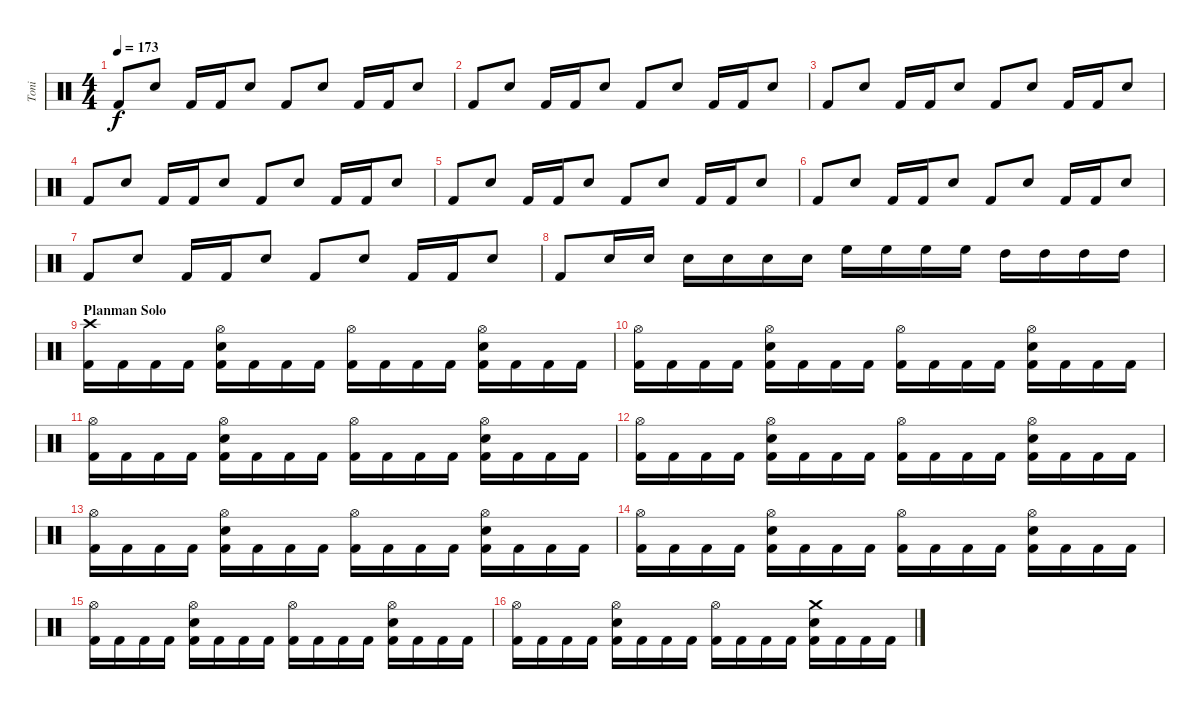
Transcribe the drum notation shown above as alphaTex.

\track ("Toni" "Toni") {instrument percussion}
\staff {score}
\articulation defaults
\ts (4 4)
\tempo 173
\clef neutral
\ks c "Kick (hit) 2".8{dy f} "Electric Snare (hit)".8 "Kick (hit) 2".16 "Kick (hit) 2".16 "Electric Snare (hit)".8 "Kick (hit) 2".8 "Electric Snare (hit)".8 "Kick (hit) 2".16 "Kick (hit) 2".16 "Electric Snare (hit)".8
|
"Kick (hit) 2".8 "Electric Snare (hit)".8 "Kick (hit) 2".16 "Kick (hit) 2".16 "Electric Snare (hit)".8 "Kick (hit) 2".8 "Electric Snare (hit)".8 "Kick (hit) 2".16 "Kick (hit) 2".16 "Electric Snare (hit)".8 |
"Kick (hit) 2".8 "Electric Snare (hit)".8 "Kick (hit) 2".16 "Kick (hit) 2".16 "Electric Snare (hit)".8 "Kick (hit) 2".8 "Electric Snare (hit)".8 "Kick (hit) 2".16 "Kick (hit) 2".16 "Electric Snare (hit)".8 |
"Kick (hit) 2".8 "Electric Snare (hit)".8 "Kick (hit) 2".16 "Kick (hit) 2".16 "Electric Snare (hit)".8 "Kick (hit) 2".8 "Electric Snare (hit)".8 "Kick (hit) 2".16 "Kick (hit) 2".16 "Electric Snare (hit)".8 |
"Kick (hit) 2".8 "Electric Snare (hit)".8 "Kick (hit) 2".16 "Kick (hit) 2".16 "Electric Snare (hit)".8 "Kick (hit) 2".8 "Electric Snare (hit)".8 "Kick (hit) 2".16 "Kick (hit) 2".16 "Electric Snare (hit)".8 |
"Kick (hit) 2".8 "Electric Snare (hit)".8 "Kick (hit) 2".16 "Kick (hit) 2".16 "Electric Snare (hit)".8 "Kick (hit) 2".8 "Electric Snare (hit)".8 "Kick (hit) 2".16 "Kick (hit) 2".16 "Electric Snare (hit)".8 |
"Kick (hit) 2".8 "Electric Snare (hit)".8 "Kick (hit) 2".16 "Kick (hit) 2".16 "Electric Snare (hit)".8 "Kick (hit) 2".8 "Electric Snare (hit)".8 "Kick (hit) 2".16 "Kick (hit) 2".16 "Electric Snare (hit)".8 |
"Kick (hit) 2".8 "Electric Snare (hit)".16 "Electric Snare (hit)".16 "Electric Snare (hit)".16 "Electric Snare (hit)".16 "Electric Snare (hit)".16 "Electric Snare (hit)".16 "High Floor Tom (hit)".16 "High Floor Tom (hit)".16 "High Floor Tom (hit)".16 "High Floor Tom (hit)".16 "High Tom (hit)".16 "High Tom (hit)".16 "High Tom (hit)".16 "High Tom (hit)".16 |
\section ("" "Planman Solo")
("Crash high (hit)" "Kick (hit) 2").16 "Kick (hit) 2".16 "Kick (hit) 2".16 "Kick (hit) 2".16 ("Hi-Hat (open)" "Electric Snare (hit)" "Kick (hit) 2").16 "Kick (hit) 2".16 "Kick (hit) 2".16 "Kick (hit) 2".16 ("Hi-Hat (open)" "Kick (hit) 2").16 "Kick (hit) 2".16 "Kick (hit) 2".16 "Kick (hit) 2".16 ("Hi-Hat (open)" "Electric Snare (hit)" "Kick (hit) 2").16 "Kick (hit) 2".16 "Kick (hit) 2".16 "Kick (hit) 2".16 |
("Hi-Hat (open)" "Kick (hit) 2").16 "Kick (hit) 2".16 "Kick (hit) 2".16 "Kick (hit) 2".16 ("Hi-Hat (open)" "Electric Snare (hit)" "Kick (hit) 2").16 "Kick (hit) 2".16 "Kick (hit) 2".16 "Kick (hit) 2".16 ("Hi-Hat (open)" "Kick (hit) 2").16 "Kick (hit) 2".16 "Kick (hit) 2".16 "Kick (hit) 2".16 ("Hi-Hat (open)" "Electric Snare (hit)" "Kick (hit) 2").16 "Kick (hit) 2".16 "Kick (hit) 2".16 "Kick (hit) 2".16 |
("Hi-Hat (open)" "Kick (hit) 2").16 "Kick (hit) 2".16 "Kick (hit) 2".16 "Kick (hit) 2".16 ("Hi-Hat (open)" "Electric Snare (hit)" "Kick (hit) 2").16 "Kick (hit) 2".16 "Kick (hit) 2".16 "Kick (hit) 2".16 ("Hi-Hat (open)" "Kick (hit) 2").16 "Kick (hit) 2".16 "Kick (hit) 2".16 "Kick (hit) 2".16 ("Hi-Hat (open)" "Electric Snare (hit)" "Kick (hit) 2").16 "Kick (hit) 2".16 "Kick (hit) 2".16 "Kick (hit) 2".16 |
("Hi-Hat (open)" "Kick (hit) 2").16 "Kick (hit) 2".16 "Kick (hit) 2".16 "Kick (hit) 2".16 ("Hi-Hat (open)" "Electric Snare (hit)" "Kick (hit) 2").16 "Kick (hit) 2".16 "Kick (hit) 2".16 "Kick (hit) 2".16 ("Hi-Hat (open)" "Kick (hit) 2").16 "Kick (hit) 2".16 "Kick (hit) 2".16 "Kick (hit) 2".16 ("Hi-Hat (open)" "Electric Snare (hit)" "Kick (hit) 2").16 "Kick (hit) 2".16 "Kick (hit) 2".16 "Kick (hit) 2".16 |
("Hi-Hat (open)" "Kick (hit) 2").16 "Kick (hit) 2".16 "Kick (hit) 2".16 "Kick (hit) 2".16 ("Hi-Hat (open)" "Electric Snare (hit)" "Kick (hit) 2").16 "Kick (hit) 2".16 "Kick (hit) 2".16 "Kick (hit) 2".16 ("Hi-Hat (open)" "Kick (hit) 2").16 "Kick (hit) 2".16 "Kick (hit) 2".16 "Kick (hit) 2".16 ("Hi-Hat (open)" "Electric Snare (hit)" "Kick (hit) 2").16 "Kick (hit) 2".16 "Kick (hit) 2".16 "Kick (hit) 2".16 |
("Hi-Hat (open)" "Kick (hit) 2").16 "Kick (hit) 2".16 "Kick (hit) 2".16 "Kick (hit) 2".16 ("Hi-Hat (open)" "Electric Snare (hit)" "Kick (hit) 2").16 "Kick (hit) 2".16 "Kick (hit) 2".16 "Kick (hit) 2".16 ("Hi-Hat (open)" "Kick (hit) 2").16 "Kick (hit) 2".16 "Kick (hit) 2".16 "Kick (hit) 2".16 ("Hi-Hat (open)" "Electric Snare (hit)" "Kick (hit) 2").16 "Kick (hit) 2".16 "Kick (hit) 2".16 "Kick (hit) 2".16 |
("Hi-Hat (open)" "Kick (hit) 2").16 "Kick (hit) 2".16 "Kick (hit) 2".16 "Kick (hit) 2".16 ("Hi-Hat (open)" "Electric Snare (hit)" "Kick (hit) 2").16 "Kick (hit) 2".16 "Kick (hit) 2".16 "Kick (hit) 2".16 ("Hi-Hat (open)" "Kick (hit) 2").16 "Kick (hit) 2".16 "Kick (hit) 2".16 "Kick (hit) 2".16 ("Hi-Hat (open)" "Electric Snare (hit)" "Kick (hit) 2").16 "Kick (hit) 2".16 "Kick (hit) 2".16 "Kick (hit) 2".16 |
("Hi-Hat (open)" "Kick (hit) 2").16 "Kick (hit) 2".16 "Kick (hit) 2".16 "Kick (hit) 2".16 ("Hi-Hat (open)" "Electric Snare (hit)" "Kick (hit) 2").16 "Kick (hit) 2".16 "Kick (hit) 2".16 "Kick (hit) 2".16 ("Hi-Hat (open)" "Kick (hit) 2").16 "Kick (hit) 2".16 "Kick (hit) 2".16 "Kick (hit) 2".16 ("Crash medium (hit)" "Electric Snare (hit)" "Kick (hit) 2").16 "Kick (hit) 2".16 "Kick (hit) 2".16 "Kick (hit) 2".16
